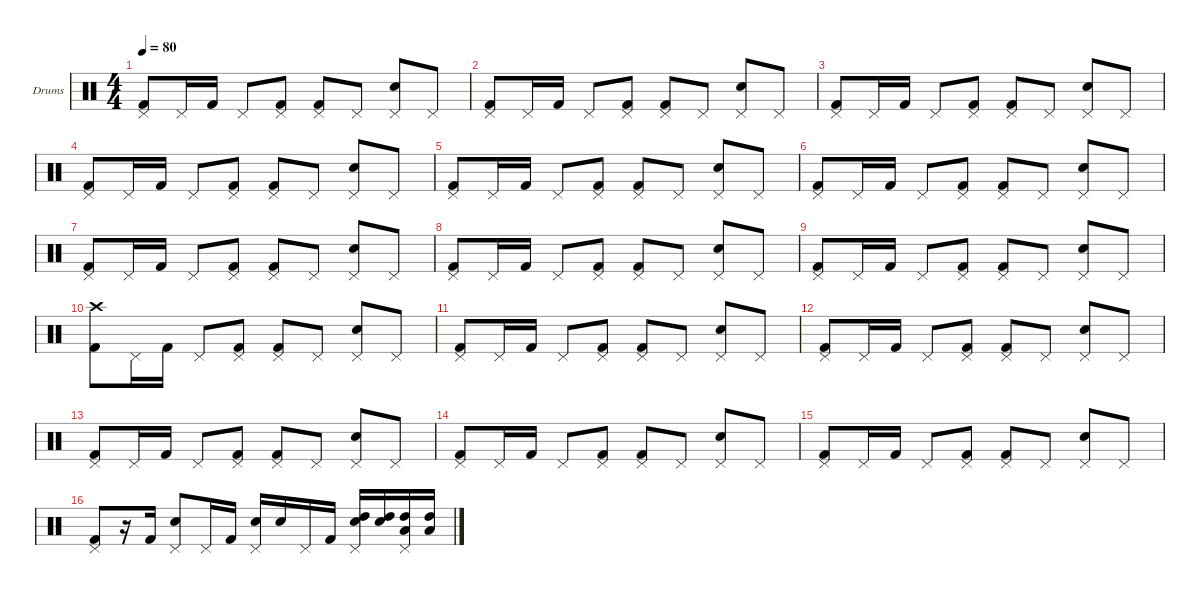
\hideDynamics
\bracketExtendMode nobrackets
\firstSystemTrackNameOrientation horizontal
\otherSystemsTrackNameOrientation horizontal
\track ("Drumkit" "Drums") {instrument percussion}
\staff {score}
\articulation defaults
\ts (4 4)
\tempo 80
\clef neutral
\ks c
("Pedal Hi-Hat (hit)" "Kick (hit) 2").8{dy p} "Pedal Hi-Hat (hit)".16 "Kick (hit) 2".16{dy f} "Pedal Hi-Hat (hit)".8{dy p} ("Pedal Hi-Hat (hit)" "Kick (hit) 2").8 ("Pedal Hi-Hat (hit)" "Kick (hit) 2").8 "Pedal Hi-Hat (hit)".8 ("Pedal Hi-Hat (hit)" "Snare (hit) 2").8 "Pedal Hi-Hat (hit)".8 |
("Pedal Hi-Hat (hit)" "Kick (hit) 2").8 "Pedal Hi-Hat (hit)".16 "Kick (hit) 2".16{dy f} "Pedal Hi-Hat (hit)".8{dy p} ("Pedal Hi-Hat (hit)" "Kick (hit) 2").8 ("Pedal Hi-Hat (hit)" "Kick (hit) 2").8 "Pedal Hi-Hat (hit)".8 ("Pedal Hi-Hat (hit)" "Snare (hit) 2").8 "Pedal Hi-Hat (hit)".8 |
("Pedal Hi-Hat (hit)" "Kick (hit) 2").8 "Pedal Hi-Hat (hit)".16 "Kick (hit) 2".16{dy f} "Pedal Hi-Hat (hit)".8{dy p} ("Pedal Hi-Hat (hit)" "Kick (hit) 2").8 ("Pedal Hi-Hat (hit)" "Kick (hit) 2").8 "Pedal Hi-Hat (hit)".8 ("Pedal Hi-Hat (hit)" "Snare (hit) 2").8 "Pedal Hi-Hat (hit)".8 |
("Pedal Hi-Hat (hit)" "Kick (hit) 2").8 "Pedal Hi-Hat (hit)".16 "Kick (hit) 2".16{dy f} "Pedal Hi-Hat (hit)".8{dy p} ("Pedal Hi-Hat (hit)" "Kick (hit) 2").8 ("Pedal Hi-Hat (hit)" "Kick (hit) 2").8 "Pedal Hi-Hat (hit)".8 ("Pedal Hi-Hat (hit)" "Snare (hit) 2").8 "Pedal Hi-Hat (hit)".8 |
("Pedal Hi-Hat (hit)" "Kick (hit) 2").8 "Pedal Hi-Hat (hit)".16 "Kick (hit) 2".16{dy f} "Pedal Hi-Hat (hit)".8{dy p} ("Pedal Hi-Hat (hit)" "Kick (hit) 2").8 ("Pedal Hi-Hat (hit)" "Kick (hit) 2").8 "Pedal Hi-Hat (hit)".8 ("Pedal Hi-Hat (hit)" "Snare (hit) 2").8 "Pedal Hi-Hat (hit)".8 |
("Pedal Hi-Hat (hit)" "Kick (hit) 2").8 "Pedal Hi-Hat (hit)".16 "Kick (hit) 2".16{dy f} "Pedal Hi-Hat (hit)".8{dy p} ("Pedal Hi-Hat (hit)" "Kick (hit) 2").8 ("Pedal Hi-Hat (hit)" "Kick (hit) 2").8 "Pedal Hi-Hat (hit)".8 ("Pedal Hi-Hat (hit)" "Snare (hit) 2").8 "Pedal Hi-Hat (hit)".8 |
("Pedal Hi-Hat (hit)" "Kick (hit) 2").8 "Pedal Hi-Hat (hit)".16 "Kick (hit) 2".16{dy f} "Pedal Hi-Hat (hit)".8{dy p} ("Pedal Hi-Hat (hit)" "Kick (hit) 2").8 ("Pedal Hi-Hat (hit)" "Kick (hit) 2").8 "Pedal Hi-Hat (hit)".8 ("Pedal Hi-Hat (hit)" "Snare (hit) 2").8 "Pedal Hi-Hat (hit)".8 |
("Pedal Hi-Hat (hit)" "Kick (hit) 2").8 "Pedal Hi-Hat (hit)".16 "Kick (hit) 2".16{dy f} "Pedal Hi-Hat (hit)".8{dy p} ("Pedal Hi-Hat (hit)" "Kick (hit) 2").8 ("Pedal Hi-Hat (hit)" "Kick (hit) 2").8 "Pedal Hi-Hat (hit)".8 ("Pedal Hi-Hat (hit)" "Snare (hit) 2").8 "Pedal Hi-Hat (hit)".8 |
("Pedal Hi-Hat (hit)" "Kick (hit) 2").8 "Pedal Hi-Hat (hit)".16 "Kick (hit) 2".16{dy f} "Pedal Hi-Hat (hit)".8{dy p} ("Pedal Hi-Hat (hit)" "Kick (hit) 2").8 ("Pedal Hi-Hat (hit)" "Kick (hit) 2").8 "Pedal Hi-Hat (hit)".8 ("Pedal Hi-Hat (hit)" "Snare (hit) 2").8 "Pedal Hi-Hat (hit)".8 |
("Crash high (hit)" "Kick (hit) 2").8{dy f} "Pedal Hi-Hat (hit)".16{dy p} "Kick (hit) 2".16{dy f} "Pedal Hi-Hat (hit)".8{dy p} ("Pedal Hi-Hat (hit)" "Kick (hit) 2").8 ("Pedal Hi-Hat (hit)" "Kick (hit) 2").8 "Pedal Hi-Hat (hit)".8 ("Pedal Hi-Hat (hit)" "Snare (hit) 2").8 "Pedal Hi-Hat (hit)".8 |
("Pedal Hi-Hat (hit)" "Kick (hit) 2").8 "Pedal Hi-Hat (hit)".16 "Kick (hit) 2".16{dy f} "Pedal Hi-Hat (hit)".8{dy p} ("Pedal Hi-Hat (hit)" "Kick (hit) 2").8 ("Pedal Hi-Hat (hit)" "Kick (hit) 2").8 "Pedal Hi-Hat (hit)".8 ("Pedal Hi-Hat (hit)" "Snare (hit) 2").8 "Pedal Hi-Hat (hit)".8 |
("Pedal Hi-Hat (hit)" "Kick (hit) 2").8 "Pedal Hi-Hat (hit)".16 "Kick (hit) 2".16{dy f} "Pedal Hi-Hat (hit)".8{dy p} ("Pedal Hi-Hat (hit)" "Kick (hit) 2").8 ("Pedal Hi-Hat (hit)" "Kick (hit) 2").8 "Pedal Hi-Hat (hit)".8 ("Pedal Hi-Hat (hit)" "Snare (hit) 2").8 "Pedal Hi-Hat (hit)".8 |
("Pedal Hi-Hat (hit)" "Kick (hit) 2").8 "Pedal Hi-Hat (hit)".16 "Kick (hit) 2".16{dy f} "Pedal Hi-Hat (hit)".8{dy p} ("Pedal Hi-Hat (hit)" "Kick (hit) 2").8 ("Pedal Hi-Hat (hit)" "Kick (hit) 2").8 "Pedal Hi-Hat (hit)".8 ("Pedal Hi-Hat (hit)" "Snare (hit) 2").8 "Pedal Hi-Hat (hit)".8 |
("Pedal Hi-Hat (hit)" "Kick (hit) 2").8 "Pedal Hi-Hat (hit)".16 "Kick (hit) 2".16{dy f} "Pedal Hi-Hat (hit)".8{dy p} ("Pedal Hi-Hat (hit)" "Kick (hit) 2").8 ("Pedal Hi-Hat (hit)" "Kick (hit) 2").8 "Pedal Hi-Hat (hit)".8 ("Pedal Hi-Hat (hit)" "Snare (hit) 2").8 "Pedal Hi-Hat (hit)".8 |
("Pedal Hi-Hat (hit)" "Kick (hit) 2").8 "Pedal Hi-Hat (hit)".16 "Kick (hit) 2".16{dy f} "Pedal Hi-Hat (hit)".8{dy p} ("Pedal Hi-Hat (hit)" "Kick (hit) 2").8 ("Pedal Hi-Hat (hit)" "Kick (hit) 2").8 "Pedal Hi-Hat (hit)".8 ("Pedal Hi-Hat (hit)" "Snare (hit) 2").8 "Pedal Hi-Hat (hit)".8 |
("Pedal Hi-Hat (hit)" "Kick (hit) 2").8 r.16 "Kick (hit) 2".16{dy f} ("Pedal Hi-Hat (hit)" "Snare (hit) 2").8{dy p} "Pedal Hi-Hat (hit)".16 "Kick (hit) 2".16{dy f} ("Pedal Hi-Hat (hit)" "Snare (hit) 2").16{dy p} "Snare (hit) 2".16{dy f} "Pedal Hi-Hat (hit)".16{dy p} "Kick (hit) 2".16{dy f} ("Pedal Hi-Hat (hit)" "Snare (hit) 2" "High Tom (hit)").16{dy p} ("Snare (hit) 2" "High Tom (hit)").16{dy f} ("Pedal Hi-Hat (hit)" "High Tom (hit)" "Low Tom (hit)").16{dy p} ("High Tom (hit)" "Low Tom (hit)").16{dy f}
